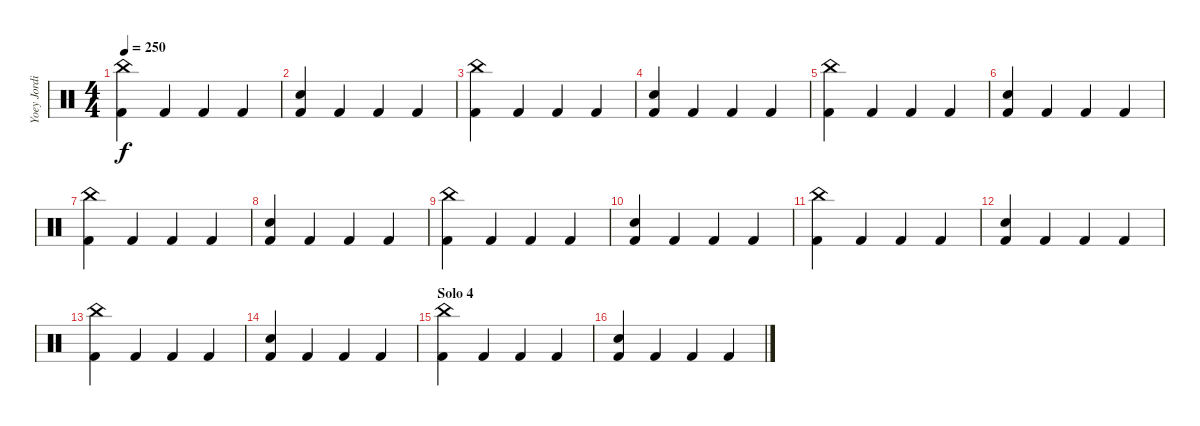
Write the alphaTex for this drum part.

\track ("Yoey Jordison" "Yoey Jordi") {instrument percussion}
\staff {score}
\articulation defaults
\ts (4 4)
\tempo 250
\clef neutral
\ks c
("Kick (hit) 2" "China (hit)").4{dy f} "Kick (hit) 2".4 "Kick (hit) 2".4 "Kick (hit) 2".4 |
("Kick (hit) 2" "Snare (hit) 2").4 "Kick (hit) 2".4 "Kick (hit) 2".4 "Kick (hit) 2".4 |
("Kick (hit) 2" "China (hit)").4 "Kick (hit) 2".4 "Kick (hit) 2".4 "Kick (hit) 2".4 |
("Kick (hit) 2" "Snare (hit) 2").4 "Kick (hit) 2".4 "Kick (hit) 2".4 "Kick (hit) 2".4 |
("Kick (hit) 2" "China (hit)").4 "Kick (hit) 2".4 "Kick (hit) 2".4 "Kick (hit) 2".4 |
("Kick (hit) 2" "Snare (hit) 2").4 "Kick (hit) 2".4 "Kick (hit) 2".4 "Kick (hit) 2".4 |
("Kick (hit) 2" "China (hit)").4 "Kick (hit) 2".4 "Kick (hit) 2".4 "Kick (hit) 2".4 |
("Kick (hit) 2" "Snare (hit) 2").4 "Kick (hit) 2".4 "Kick (hit) 2".4 "Kick (hit) 2".4 |
("Kick (hit) 2" "China (hit)").4 "Kick (hit) 2".4 "Kick (hit) 2".4 "Kick (hit) 2".4 |
("Kick (hit) 2" "Snare (hit) 2").4 "Kick (hit) 2".4 "Kick (hit) 2".4 "Kick (hit) 2".4 |
("Kick (hit) 2" "China (hit)").4 "Kick (hit) 2".4 "Kick (hit) 2".4 "Kick (hit) 2".4 |
("Kick (hit) 2" "Snare (hit) 2").4 "Kick (hit) 2".4 "Kick (hit) 2".4 "Kick (hit) 2".4 |
("Kick (hit) 2" "China (hit)").4 "Kick (hit) 2".4 "Kick (hit) 2".4 "Kick (hit) 2".4 |
("Kick (hit) 2" "Snare (hit) 2").4 "Kick (hit) 2".4 "Kick (hit) 2".4 "Kick (hit) 2".4 |
\section ("" "Solo 4")
("Kick (hit) 2" "China (hit)").4 "Kick (hit) 2".4 "Kick (hit) 2".4 "Kick (hit) 2".4 |
("Kick (hit) 2" "Snare (hit) 2").4 "Kick (hit) 2".4 "Kick (hit) 2".4 "Kick (hit) 2".4
